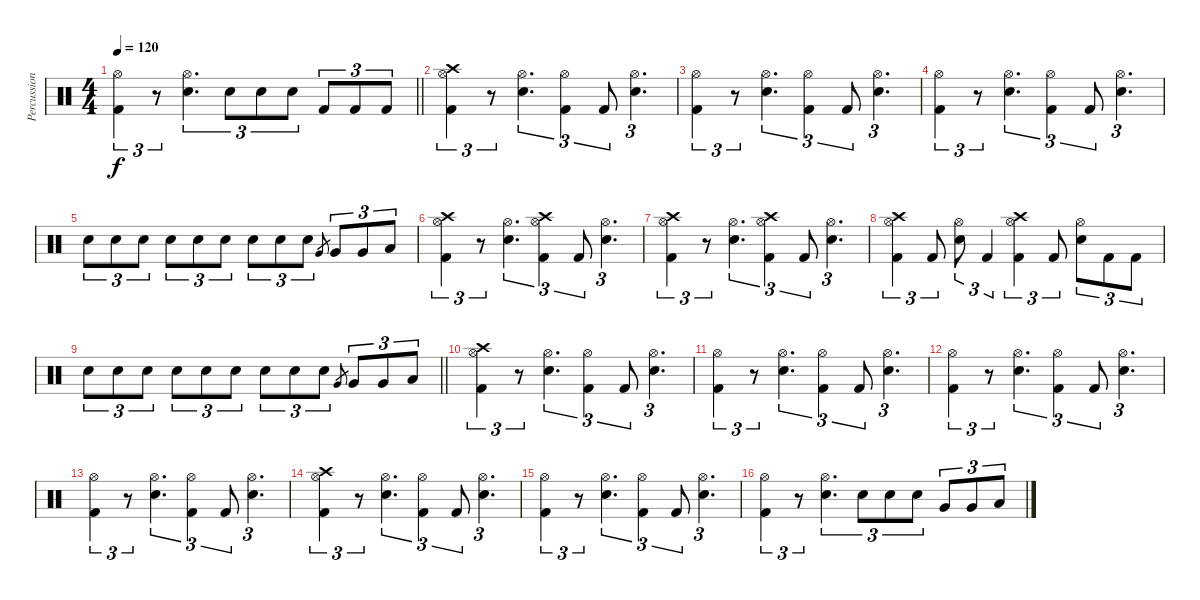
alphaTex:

\track ("Percussion" "Percussion") {instrument percussion}
\staff {score}
\articulation defaults
\ts (4 4)
\tempo 120
\clef neutral
\barLineRight lightlight
\ks c
("Hi-Hat (open)" "Kick (hit) 2").4{tu (3 2) dy f} r.8{tu (3 2)} ("Hi-Hat (open)" "Electric Snare (hit)").4{d tu (3 2)} "Electric Snare (hit)".8{tu (3 2)} "Electric Snare (hit)".8{tu (3 2)} "Electric Snare (hit)".8{tu (3 2)} "Kick (hit) 2".8{tu (3 2)} "Kick (hit) 2".8{tu (3 2)} "Kick (hit) 2".8{tu (3 2)} |
\section ("" "")
("Crash high (hit)" "Hi-Hat (open)" "Kick (hit) 2").4{tu (3 2)} r.8{tu (3 2)} ("Hi-Hat (open)" "Electric Snare (hit)").4{d tu (3 2)} ("Hi-Hat (open)" "Kick (hit) 2").4{tu (3 2)} "Kick (hit) 2".8{tu (3 2)} ("Hi-Hat (open)" "Electric Snare (hit)").4{d tu (3 2)} |
("Hi-Hat (open)" "Kick (hit) 2").4{tu (3 2)} r.8{tu (3 2)} ("Hi-Hat (open)" "Electric Snare (hit)").4{d tu (3 2)} ("Hi-Hat (open)" "Kick (hit) 2").4{tu (3 2)} "Kick (hit) 2".8{tu (3 2)} ("Hi-Hat (open)" "Electric Snare (hit)").4{d tu (3 2)} |
("Hi-Hat (open)" "Kick (hit) 2").4{tu (3 2)} r.8{tu (3 2)} ("Hi-Hat (open)" "Electric Snare (hit)").4{d tu (3 2)} ("Hi-Hat (open)" "Kick (hit) 2").4{tu (3 2)} "Kick (hit) 2".8{tu (3 2)} ("Hi-Hat (open)" "Electric Snare (hit)").4{d tu (3 2)} |
"Electric Snare (hit)".8{tu (3 2)} "Electric Snare (hit)".8{tu (3 2)} "Electric Snare (hit)".8{tu (3 2)} "Electric Snare (hit)".8{tu (3 2)} "Electric Snare (hit)".8{tu (3 2)} "Electric Snare (hit)".8{tu (3 2)} "Electric Snare (hit)".8{tu (3 2)} "Electric Snare (hit)".8{tu (3 2)} "Electric Snare (hit)".8{tu (3 2)} "Very Low Tom (hit)".8{gr} "Very Low Tom (hit)".8{tu (3 2)} "Very Low Tom (hit)".8{tu (3 2)} "Low Tom (hit)".8{tu (3 2)} |
("Hi-Hat (open)" "Crash high (hit)" "Kick (hit) 2").4{tu (3 2)} r.8{tu (3 2)} ("Hi-Hat (open)" "Electric Snare (hit)").4{d tu (3 2)} ("Hi-Hat (open)" "Crash high (hit)" "Kick (hit) 2").4{tu (3 2)} "Kick (hit) 2".8{tu (3 2)} ("Hi-Hat (open)" "Electric Snare (hit)").4{d tu (3 2)} |
("Hi-Hat (open)" "Crash high (hit)" "Kick (hit) 2").4{tu (3 2)} r.8{tu (3 2)} ("Hi-Hat (open)" "Electric Snare (hit)").4{d tu (3 2)} ("Hi-Hat (open)" "Crash high (hit)" "Kick (hit) 2").4{tu (3 2)} "Kick (hit) 2".8{tu (3 2)} ("Hi-Hat (open)" "Electric Snare (hit)").4{d tu (3 2)} |
("Hi-Hat (open)" "Crash high (hit)" "Kick (hit) 2").4{tu (3 2)} "Kick (hit) 2".8{tu (3 2)} ("Hi-Hat (open)" "Electric Snare (hit)").8{tu (3 2)} "Kick (hit) 2".4{tu (3 2)} ("Hi-Hat (open)" "Crash high (hit)" "Kick (hit) 2").4{tu (3 2)} "Kick (hit) 2".8{tu (3 2)} ("Hi-Hat (open)" "Electric Snare (hit)").8{tu (3 2)} "Kick (hit) 2".8{tu (3 2)} "Kick (hit) 2".8{tu (3 2)} |
\barLineRight lightlight "Electric Snare (hit)".8{tu (3 2)} "Electric Snare (hit)".8{tu (3 2)} "Electric Snare (hit)".8{tu (3 2)} "Electric Snare (hit)".8{tu (3 2)} "Electric Snare (hit)".8{tu (3 2)} "Electric Snare (hit)".8{tu (3 2)} "Electric Snare (hit)".8{tu (3 2)} "Electric Snare (hit)".8{tu (3 2)} "Electric Snare (hit)".8{tu (3 2)} "Very Low Tom (hit)".8{gr} "Very Low Tom (hit)".8{tu (3 2)} "Very Low Tom (hit)".8{tu (3 2)} "Low Tom (hit)".8{tu (3 2)}
|
\section ("" "")
("Hi-Hat (open)" "Crash high (hit)" "Kick (hit) 2").4{tu (3 2)} r.8{tu (3 2)} ("Hi-Hat (open)" "Electric Snare (hit)").4{d tu (3 2)} ("Hi-Hat (open)" "Kick (hit) 2").4{tu (3 2)} "Kick (hit) 2".8{tu (3 2)} ("Hi-Hat (open)" "Electric Snare (hit)").4{d tu (3 2)} |
("Hi-Hat (open)" "Kick (hit) 2").4{tu (3 2)} r.8{tu (3 2)} ("Hi-Hat (open)" "Electric Snare (hit)").4{d tu (3 2)} ("Hi-Hat (open)" "Kick (hit) 2").4{tu (3 2)} "Kick (hit) 2".8{tu (3 2)} ("Hi-Hat (open)" "Electric Snare (hit)").4{d tu (3 2)} |
("Hi-Hat (open)" "Kick (hit) 2").4{tu (3 2)} r.8{tu (3 2)} ("Hi-Hat (open)" "Electric Snare (hit)").4{d tu (3 2)} ("Hi-Hat (open)" "Kick (hit) 2").4{tu (3 2)} "Kick (hit) 2".8{tu (3 2)} ("Hi-Hat (open)" "Electric Snare (hit)").4{d tu (3 2)} |
("Hi-Hat (open)" "Kick (hit) 2").4{tu (3 2)} r.8{tu (3 2)} ("Hi-Hat (open)" "Electric Snare (hit)").4{d tu (3 2)} ("Hi-Hat (open)" "Kick (hit) 2").4{tu (3 2)} "Kick (hit) 2".8{tu (3 2)} ("Hi-Hat (open)" "Electric Snare (hit)").4{d tu (3 2)} |
("Hi-Hat (open)" "Crash high (hit)" "Kick (hit) 2").4{tu (3 2)} r.8{tu (3 2)} ("Hi-Hat (open)" "Electric Snare (hit)").4{d tu (3 2)} ("Hi-Hat (open)" "Kick (hit) 2").4{tu (3 2)} "Kick (hit) 2".8{tu (3 2)} ("Hi-Hat (open)" "Electric Snare (hit)").4{d tu (3 2)} |
("Hi-Hat (open)" "Kick (hit) 2").4{tu (3 2)} r.8{tu (3 2)} ("Hi-Hat (open)" "Electric Snare (hit)").4{d tu (3 2)} ("Hi-Hat (open)" "Kick (hit) 2").4{tu (3 2)} "Kick (hit) 2".8{tu (3 2)} ("Hi-Hat (open)" "Electric Snare (hit)").4{d tu (3 2)} |
("Hi-Hat (open)" "Kick (hit) 2").4{tu (3 2)} r.8{tu (3 2)} ("Hi-Hat (open)" "Electric Snare (hit)").4{d tu (3 2)} "Electric Snare (hit)".8{tu (3 2)} "Electric Snare (hit)".8{tu (3 2)} "Electric Snare (hit)".8{tu (3 2)} "Very Low Tom (hit)".8{tu (3 2)} "Very Low Tom (hit)".8{tu (3 2)} "Low Tom (hit)".8{tu (3 2)}
